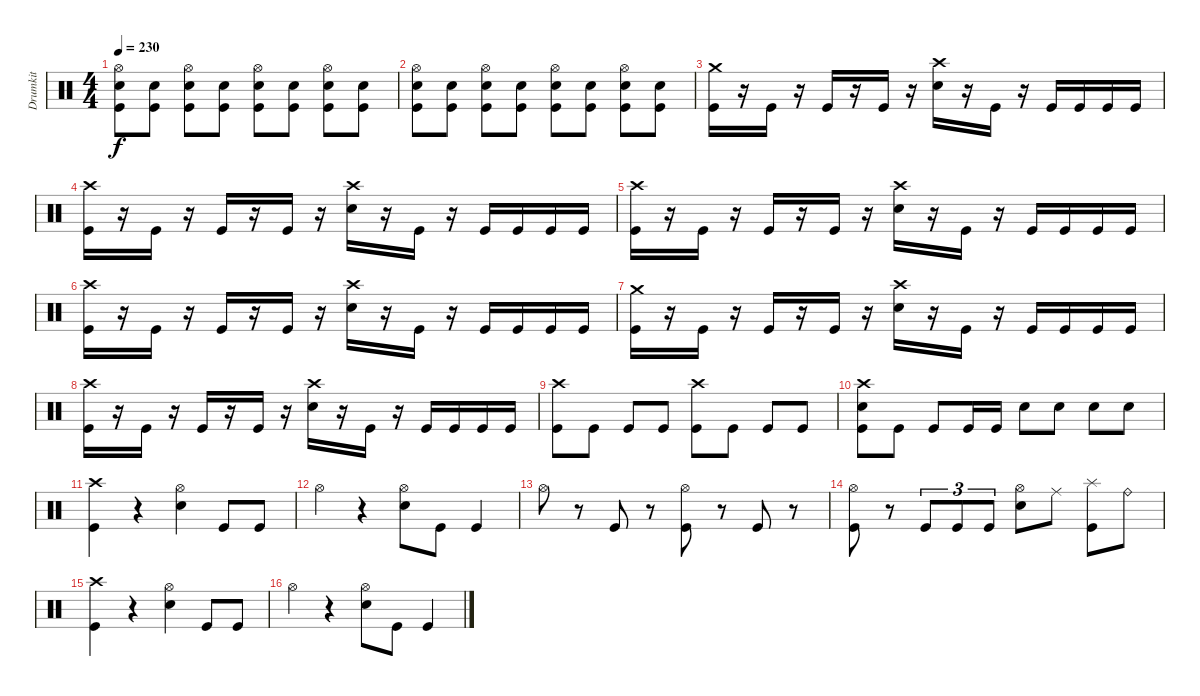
\track ("Drumkit" "Drumkit") {instrument percussion}
\staff {score}
\articulation defaults
\ts (4 4)
\tempo 230
\clef neutral
\ks c
("Hi-Hat (open)" "Snare (hit) 2" "Kick (hit)").8{dy f} ("Snare (hit) 2" "Kick (hit)").8 ("Hi-Hat (open)" "Snare (hit) 2" "Kick (hit)").8 ("Snare (hit) 2" "Kick (hit)").8 ("Hi-Hat (open)" "Snare (hit) 2" "Kick (hit)").8 ("Snare (hit) 2" "Kick (hit)").8 ("Hi-Hat (open)" "Snare (hit) 2" "Kick (hit)").8 ("Snare (hit) 2" "Kick (hit)").8 |
("Hi-Hat (open)" "Snare (hit) 2" "Kick (hit)").8 ("Snare (hit) 2" "Kick (hit)").8 ("Hi-Hat (open)" "Snare (hit) 2" "Kick (hit)").8 ("Snare (hit) 2" "Kick (hit)").8 ("Hi-Hat (open)" "Snare (hit) 2" "Kick (hit)").8 ("Snare (hit) 2" "Kick (hit)").8 ("Hi-Hat (open)" "Snare (hit) 2" "Kick (hit)").8 ("Snare (hit) 2" "Kick (hit)").8 |
("Crash medium (hit)" "Kick (hit)").16 r.16 "Kick (hit)".16 r.16 "Kick (hit)".16 r.16 "Kick (hit)".16 r.16 ("Crash high (hit)" "Snare (hit) 2").16 r.16 "Kick (hit)".16 r.16 "Kick (hit)".16 "Kick (hit)".16 "Kick (hit)".16 "Kick (hit)".16 |
("Crash high (hit)" "Kick (hit)").16 r.16 "Kick (hit)".16 r.16 "Kick (hit)".16 r.16 "Kick (hit)".16 r.16 ("Crash high (hit)" "Snare (hit) 2").16 r.16 "Kick (hit)".16 r.16 "Kick (hit)".16 "Kick (hit)".16 "Kick (hit)".16 "Kick (hit)".16 |
("Crash high (hit)" "Kick (hit)").16 r.16 "Kick (hit)".16 r.16 "Kick (hit)".16 r.16 "Kick (hit)".16 r.16 ("Crash high (hit)" "Snare (hit) 2").16 r.16 "Kick (hit)".16 r.16 "Kick (hit)".16 "Kick (hit)".16 "Kick (hit)".16 "Kick (hit)".16 |
("Crash high (hit)" "Kick (hit)").16 r.16 "Kick (hit)".16 r.16 "Kick (hit)".16 r.16 "Kick (hit)".16 r.16 ("Crash high (hit)" "Snare (hit) 2").16 r.16 "Kick (hit)".16 r.16 "Kick (hit)".16 "Kick (hit)".16 "Kick (hit)".16 "Kick (hit)".16 |
("Crash medium (hit)" "Kick (hit)").16 r.16 "Kick (hit)".16 r.16 "Kick (hit)".16 r.16 "Kick (hit)".16 r.16 ("Crash high (hit)" "Snare (hit) 2").16 r.16 "Kick (hit)".16 r.16 "Kick (hit)".16 "Kick (hit)".16 "Kick (hit)".16 "Kick (hit)".16 |
("Crash high (hit)" "Kick (hit)").16 r.16 "Kick (hit)".16 r.16 "Kick (hit)".16 r.16 "Kick (hit)".16 r.16 ("Crash high (hit)" "Snare (hit) 2").16 r.16 "Kick (hit)".16 r.16 "Kick (hit)".16 "Kick (hit)".16 "Kick (hit)".16 "Kick (hit)".16 |
("Crash high (hit)" "Kick (hit)").8 "Kick (hit)".8 "Kick (hit)".8 "Kick (hit)".8 ("Crash high (hit)" "Kick (hit)").8 "Kick (hit)".8 "Kick (hit)".8 "Kick (hit)".8 |
("Crash high (hit)" "Snare (hit) 2" "Kick (hit)").8 "Kick (hit)".8 "Kick (hit)".8 "Kick (hit)".16 "Kick (hit)".16 "Snare (hit) 2".8 "Snare (hit) 2".8 "Snare (hit) 2".8 "Snare (hit) 2".8 |
("Crash high (hit)" "Kick (hit)").4 r.4 ("Hi-Hat (open)" "Snare (hit) 2").4 "Kick (hit)".8 "Kick (hit)".8 |
"Hi-Hat (open)".4 r.4 ("Hi-Hat (open)" "Snare (hit) 2").8 "Kick (hit)".8 "Kick (hit)".4 |
"Hi-Hat (open)".8 r.8 "Kick (hit)".8 r.8 ("Hi-Hat (open)" "Kick (hit)").8 r.8 "Kick (hit)".8 r.8 |
("Hi-Hat (open)" "Kick (hit)").8 r.8 "Kick (hit)".8{tu (3 2)} "Kick (hit)".8{tu (3 2)} "Kick (hit)".8{tu (3 2)} ("Hi-Hat (open)" "Snare (hit) 2").8 "Ride (middle)".8 ("Splash (hit)" "Kick (hit)").8 "Ride (bell)".8 |
("Crash high (hit)" "Kick (hit)").4 r.4 ("Hi-Hat (open)" "Snare (hit) 2").4 "Kick (hit)".8 "Kick (hit)".8 |
"Hi-Hat (open)".4 r.4 ("Hi-Hat (open)" "Snare (hit) 2").8 "Kick (hit)".8 "Kick (hit)".4
